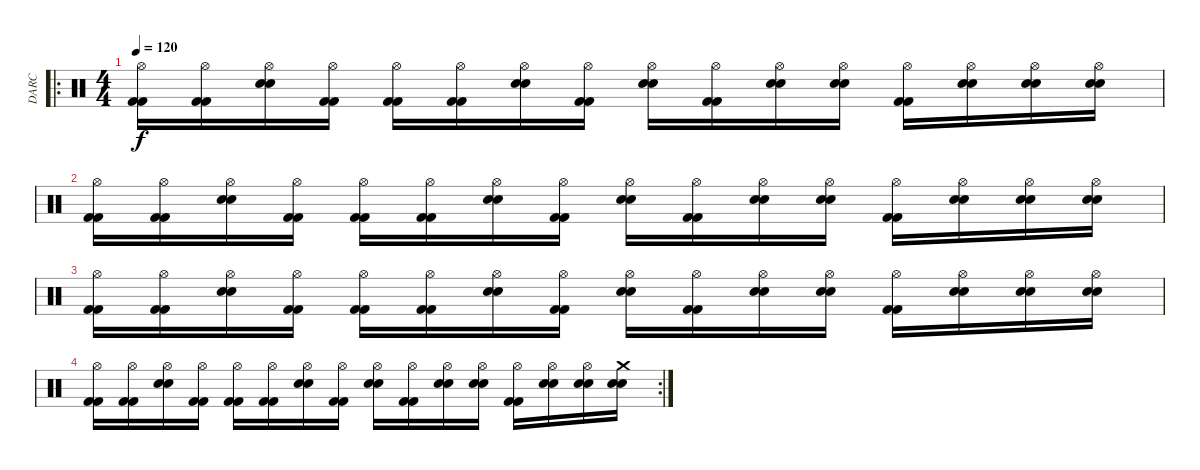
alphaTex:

\track ("DARC" "DARC") {instrument percussion}
\staff {score}
\articulation defaults
\ro
\ts (4 4)
\tempo 120
\clef neutral
\ks c
("Hi-Hat (open)" "Kick (hit) 2" "Kick (hit) 2").16{dy f} ("Hi-Hat (open)" "Kick (hit) 2" "Kick (hit) 2").16 ("Hi-Hat (open)" "Snare (hit) 2" "Snare (hit) 2").16 ("Hi-Hat (open)" "Kick (hit) 2" "Kick (hit) 2").16 ("Hi-Hat (open)" "Kick (hit) 2" "Kick (hit) 2").16 ("Hi-Hat (open)" "Kick (hit) 2" "Kick (hit) 2").16 ("Hi-Hat (open)" "Snare (hit) 2" "Snare (hit) 2").16 ("Hi-Hat (open)" "Kick (hit) 2" "Kick (hit) 2").16 ("Hi-Hat (open)" "Snare (hit) 2" "Snare (hit) 2").16 ("Hi-Hat (open)" "Kick (hit) 2" "Kick (hit) 2").16 ("Hi-Hat (open)" "Snare (hit) 2" "Snare (hit) 2").16 ("Hi-Hat (open)" "Snare (hit) 2" "Snare (hit) 2").16 ("Hi-Hat (open)" "Kick (hit) 2" "Kick (hit) 2").16 ("Hi-Hat (open)" "Snare (hit) 2" "Snare (hit) 2").16 ("Hi-Hat (open)" "Snare (hit) 2" "Snare (hit) 2").16 ("Hi-Hat (open)" "Snare (hit) 2" "Snare (hit) 2").16 |
("Hi-Hat (open)" "Kick (hit) 2" "Kick (hit) 2").16 ("Hi-Hat (open)" "Kick (hit) 2" "Kick (hit) 2").16 ("Hi-Hat (open)" "Snare (hit) 2" "Snare (hit) 2").16 ("Hi-Hat (open)" "Kick (hit) 2" "Kick (hit) 2").16 ("Hi-Hat (open)" "Kick (hit) 2" "Kick (hit) 2").16 ("Hi-Hat (open)" "Kick (hit) 2" "Kick (hit) 2").16 ("Hi-Hat (open)" "Snare (hit) 2" "Snare (hit) 2").16 ("Hi-Hat (open)" "Kick (hit) 2" "Kick (hit) 2").16 ("Hi-Hat (open)" "Snare (hit) 2" "Snare (hit) 2").16 ("Hi-Hat (open)" "Kick (hit) 2" "Kick (hit) 2").16 ("Hi-Hat (open)" "Snare (hit) 2" "Snare (hit) 2").16 ("Hi-Hat (open)" "Snare (hit) 2" "Snare (hit) 2").16 ("Hi-Hat (open)" "Kick (hit) 2" "Kick (hit) 2").16 ("Hi-Hat (open)" "Snare (hit) 2" "Snare (hit) 2").16 ("Hi-Hat (open)" "Snare (hit) 2" "Snare (hit) 2").16 ("Hi-Hat (open)" "Snare (hit) 2" "Snare (hit) 2").16 |
("Hi-Hat (open)" "Kick (hit) 2" "Kick (hit) 2").16 ("Hi-Hat (open)" "Kick (hit) 2" "Kick (hit) 2").16 ("Hi-Hat (open)" "Snare (hit) 2" "Snare (hit) 2").16 ("Hi-Hat (open)" "Kick (hit) 2" "Kick (hit) 2").16 ("Hi-Hat (open)" "Kick (hit) 2" "Kick (hit) 2").16 ("Hi-Hat (open)" "Kick (hit) 2" "Kick (hit) 2").16 ("Hi-Hat (open)" "Snare (hit) 2" "Snare (hit) 2").16 ("Hi-Hat (open)" "Kick (hit) 2" "Kick (hit) 2").16 ("Hi-Hat (open)" "Snare (hit) 2" "Snare (hit) 2").16 ("Hi-Hat (open)" "Kick (hit) 2" "Kick (hit) 2").16 ("Hi-Hat (open)" "Snare (hit) 2" "Snare (hit) 2").16 ("Hi-Hat (open)" "Snare (hit) 2" "Snare (hit) 2").16 ("Hi-Hat (open)" "Kick (hit) 2" "Kick (hit) 2").16 ("Hi-Hat (open)" "Snare (hit) 2" "Snare (hit) 2").16 ("Hi-Hat (open)" "Snare (hit) 2" "Snare (hit) 2").16 ("Hi-Hat (open)" "Snare (hit) 2" "Snare (hit) 2").16 |
\rc 2
("Hi-Hat (open)" "Kick (hit) 2" "Kick (hit) 2").16 ("Hi-Hat (open)" "Kick (hit) 2" "Kick (hit) 2").16 ("Hi-Hat (open)" "Snare (hit) 2" "Snare (hit) 2").16 ("Hi-Hat (open)" "Kick (hit) 2" "Kick (hit) 2").16 ("Hi-Hat (open)" "Kick (hit) 2" "Kick (hit) 2").16 ("Hi-Hat (open)" "Kick (hit) 2" "Kick (hit) 2").16 ("Hi-Hat (open)" "Snare (hit) 2" "Snare (hit) 2").16 ("Hi-Hat (open)" "Kick (hit) 2" "Kick (hit) 2").16 ("Hi-Hat (open)" "Snare (hit) 2" "Snare (hit) 2").16 ("Hi-Hat (open)" "Kick (hit) 2" "Kick (hit) 2").16 ("Hi-Hat (open)" "Snare (hit) 2" "Snare (hit) 2").16 ("Hi-Hat (open)" "Snare (hit) 2" "Snare (hit) 2").16 ("Hi-Hat (open)" "Kick (hit) 2" "Kick (hit) 2").16 ("Hi-Hat (open)" "Snare (hit) 2" "Snare (hit) 2").16 ("Hi-Hat (open)" "Snare (hit) 2" "Snare (hit) 2").16 ("Crash medium (hit)" "Snare (hit) 2" "Snare (hit) 2").16
